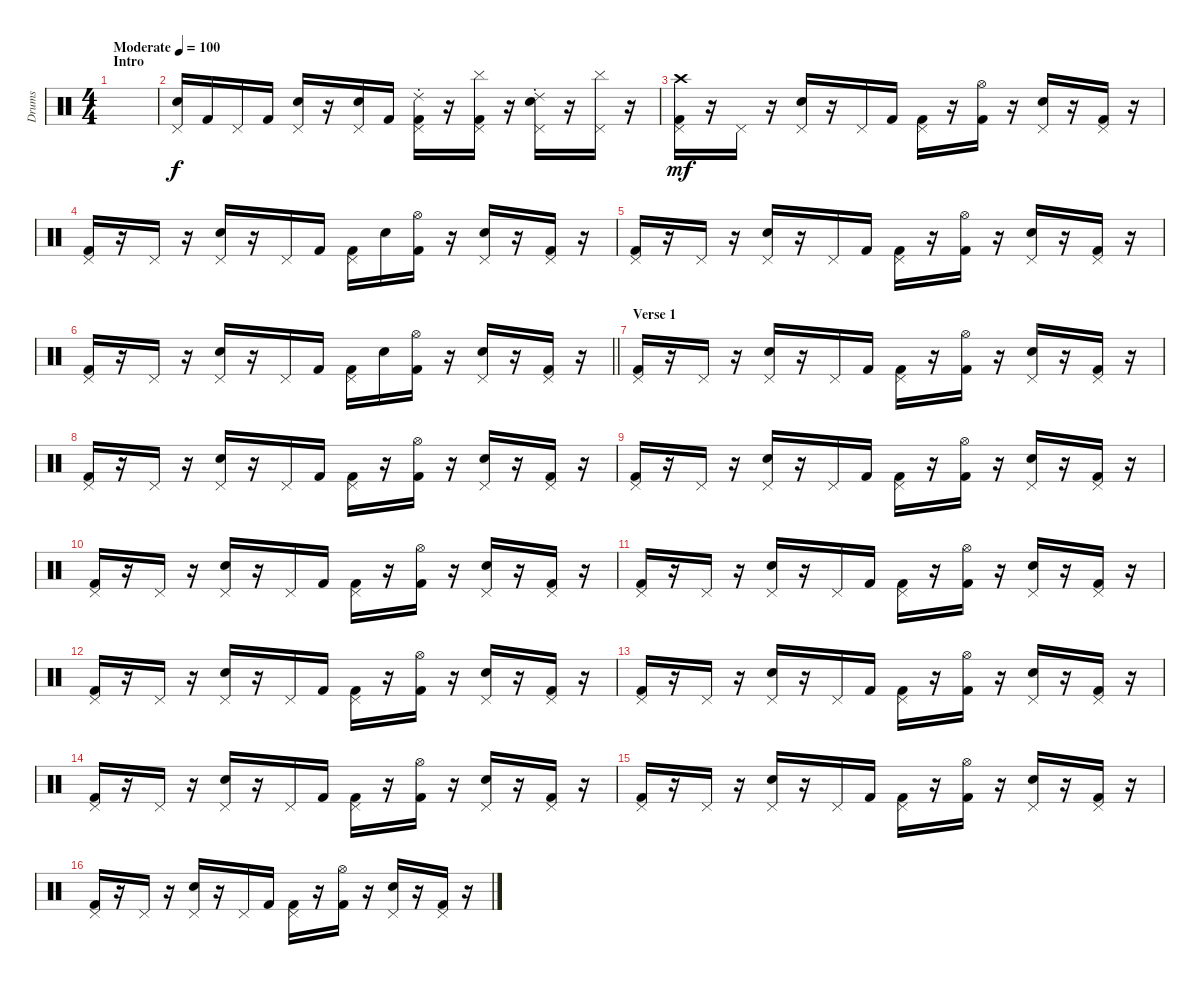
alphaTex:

\track ("Drums" "Drums") {instrument percussion}
\staff {score}
\articulation defaults
\ts (4 4)
\section ("" "Intro")
\tempo (100 "Moderate")
\clef neutral
\ks c
|
("Pedal Hi-Hat (hit)" "Electric Snare (hit)").16 "Kick (hit) 2".16 "Pedal Hi-Hat (hit)".16 "Kick (hit) 2".16 ("Pedal Hi-Hat (hit)" "Electric Snare (hit)").16 r.16 ("Pedal Hi-Hat (hit)" "Electric Snare (hit)").16 "Kick (hit) 2".16 ("Ride (choke) 2" "Pedal Hi-Hat (hit)" "Kick (hit) 2").16 r.16 ("Cymbal (hit)" "Pedal Hi-Hat (hit)" "Kick (hit) 2").16 r.16 ("Ride (choke) 2" "Pedal Hi-Hat (hit)" "Electric Snare (hit)").16 r.16 ("Cymbal (hit)" "Pedal Hi-Hat (hit)").16 r.16 |
("Pedal Hi-Hat (hit)" "Crash high (hit)" "Kick (hit) 2").16{dy mf} r.16 "Pedal Hi-Hat (hit)".16 r.16 ("Pedal Hi-Hat (hit)" "Electric Snare (hit)").16 r.16 "Pedal Hi-Hat (hit)".16 "Kick (hit) 2".16 ("Pedal Hi-Hat (hit)" "Kick (hit) 2").16 r.16 ("Hi-Hat (open)" "Kick (hit) 2").16 r.16 ("Pedal Hi-Hat (hit)" "Electric Snare (hit)").16 r.16 ("Pedal Hi-Hat (hit)" "Kick (hit) 2").16 r.16 |
("Pedal Hi-Hat (hit)" "Kick (hit) 2").16 r.16 "Pedal Hi-Hat (hit)".16 r.16 ("Pedal Hi-Hat (hit)" "Electric Snare (hit)").16 r.16 "Pedal Hi-Hat (hit)".16 "Kick (hit) 2".16 ("Pedal Hi-Hat (hit)" "Kick (hit) 2").16 "Electric Snare (hit)".16 ("Hi-Hat (open)" "Kick (hit) 2").16 r.16 ("Pedal Hi-Hat (hit)" "Electric Snare (hit)").16 r.16 ("Pedal Hi-Hat (hit)" "Kick (hit) 2").16 r.16 |
("Pedal Hi-Hat (hit)" "Kick (hit) 2").16 r.16 "Pedal Hi-Hat (hit)".16 r.16 ("Pedal Hi-Hat (hit)" "Electric Snare (hit)").16 r.16 "Pedal Hi-Hat (hit)".16 "Kick (hit) 2".16 ("Pedal Hi-Hat (hit)" "Kick (hit) 2").16 r.16 ("Hi-Hat (open)" "Kick (hit) 2").16 r.16 ("Pedal Hi-Hat (hit)" "Electric Snare (hit)").16 r.16 ("Pedal Hi-Hat (hit)" "Kick (hit) 2").16 r.16 |
\barLineRight lightlight
("Pedal Hi-Hat (hit)" "Kick (hit) 2").16 r.16 "Pedal Hi-Hat (hit)".16 r.16 ("Pedal Hi-Hat (hit)" "Electric Snare (hit)").16 r.16 "Pedal Hi-Hat (hit)".16 "Kick (hit) 2".16 ("Pedal Hi-Hat (hit)" "Kick (hit) 2").16 "Electric Snare (hit)".16 ("Hi-Hat (open)" "Kick (hit) 2").16 r.16 ("Pedal Hi-Hat (hit)" "Electric Snare (hit)").16 r.16 ("Pedal Hi-Hat (hit)" "Kick (hit) 2").16 r.16 |
\section ("" "Verse 1")
("Pedal Hi-Hat (hit)" "Kick (hit) 2").16 r.16 "Pedal Hi-Hat (hit)".16 r.16 ("Pedal Hi-Hat (hit)" "Electric Snare (hit)").16 r.16 "Pedal Hi-Hat (hit)".16 "Kick (hit) 2".16 ("Pedal Hi-Hat (hit)" "Kick (hit) 2").16 r.16 ("Hi-Hat (open)" "Kick (hit) 2").16 r.16 ("Pedal Hi-Hat (hit)" "Electric Snare (hit)").16 r.16 ("Pedal Hi-Hat (hit)" "Kick (hit) 2").16 r.16 |
("Pedal Hi-Hat (hit)" "Kick (hit) 2").16 r.16 "Pedal Hi-Hat (hit)".16 r.16 ("Pedal Hi-Hat (hit)" "Electric Snare (hit)").16 r.16 "Pedal Hi-Hat (hit)".16 "Kick (hit) 2".16 ("Pedal Hi-Hat (hit)" "Kick (hit) 2").16 r.16 ("Hi-Hat (open)" "Kick (hit) 2").16 r.16 ("Pedal Hi-Hat (hit)" "Electric Snare (hit)").16 r.16 ("Pedal Hi-Hat (hit)" "Kick (hit) 2").16 r.16 |
("Pedal Hi-Hat (hit)" "Kick (hit) 2").16 r.16 "Pedal Hi-Hat (hit)".16 r.16 ("Pedal Hi-Hat (hit)" "Electric Snare (hit)").16 r.16 "Pedal Hi-Hat (hit)".16 "Kick (hit) 2".16 ("Pedal Hi-Hat (hit)" "Kick (hit) 2").16 r.16 ("Hi-Hat (open)" "Kick (hit) 2").16 r.16 ("Pedal Hi-Hat (hit)" "Electric Snare (hit)").16 r.16 ("Pedal Hi-Hat (hit)" "Kick (hit) 2").16 r.16 |
("Pedal Hi-Hat (hit)" "Kick (hit) 2").16 r.16 "Pedal Hi-Hat (hit)".16 r.16 ("Pedal Hi-Hat (hit)" "Electric Snare (hit)").16 r.16 "Pedal Hi-Hat (hit)".16 "Kick (hit) 2".16 ("Pedal Hi-Hat (hit)" "Kick (hit) 2").16 r.16 ("Hi-Hat (open)" "Kick (hit) 2").16 r.16 ("Pedal Hi-Hat (hit)" "Electric Snare (hit)").16 r.16 ("Pedal Hi-Hat (hit)" "Kick (hit) 2").16 r.16 |
("Pedal Hi-Hat (hit)" "Kick (hit) 2").16 r.16 "Pedal Hi-Hat (hit)".16 r.16 ("Pedal Hi-Hat (hit)" "Electric Snare (hit)").16 r.16 "Pedal Hi-Hat (hit)".16 "Kick (hit) 2".16 ("Pedal Hi-Hat (hit)" "Kick (hit) 2").16 r.16 ("Hi-Hat (open)" "Kick (hit) 2").16 r.16 ("Pedal Hi-Hat (hit)" "Electric Snare (hit)").16 r.16 ("Pedal Hi-Hat (hit)" "Kick (hit) 2").16 r.16 |
("Pedal Hi-Hat (hit)" "Kick (hit) 2").16 r.16 "Pedal Hi-Hat (hit)".16 r.16 ("Pedal Hi-Hat (hit)" "Electric Snare (hit)").16 r.16 "Pedal Hi-Hat (hit)".16 "Kick (hit) 2".16 ("Pedal Hi-Hat (hit)" "Kick (hit) 2").16 r.16 ("Hi-Hat (open)" "Kick (hit) 2").16 r.16 ("Pedal Hi-Hat (hit)" "Electric Snare (hit)").16 r.16 ("Pedal Hi-Hat (hit)" "Kick (hit) 2").16 r.16 |
("Pedal Hi-Hat (hit)" "Kick (hit) 2").16 r.16 "Pedal Hi-Hat (hit)".16 r.16 ("Pedal Hi-Hat (hit)" "Electric Snare (hit)").16 r.16 "Pedal Hi-Hat (hit)".16 "Kick (hit) 2".16 ("Pedal Hi-Hat (hit)" "Kick (hit) 2").16 r.16 ("Hi-Hat (open)" "Kick (hit) 2").16 r.16 ("Pedal Hi-Hat (hit)" "Electric Snare (hit)").16 r.16 ("Pedal Hi-Hat (hit)" "Kick (hit) 2").16 r.16 |
("Pedal Hi-Hat (hit)" "Kick (hit) 2").16 r.16 "Pedal Hi-Hat (hit)".16 r.16 ("Pedal Hi-Hat (hit)" "Electric Snare (hit)").16 r.16 "Pedal Hi-Hat (hit)".16 "Kick (hit) 2".16 ("Pedal Hi-Hat (hit)" "Kick (hit) 2").16 r.16 ("Hi-Hat (open)" "Kick (hit) 2").16 r.16 ("Pedal Hi-Hat (hit)" "Electric Snare (hit)").16 r.16 ("Pedal Hi-Hat (hit)" "Kick (hit) 2").16 r.16 |
("Pedal Hi-Hat (hit)" "Kick (hit) 2").16 r.16 "Pedal Hi-Hat (hit)".16 r.16 ("Pedal Hi-Hat (hit)" "Electric Snare (hit)").16 r.16 "Pedal Hi-Hat (hit)".16 "Kick (hit) 2".16 ("Pedal Hi-Hat (hit)" "Kick (hit) 2").16 r.16 ("Hi-Hat (open)" "Kick (hit) 2").16 r.16 ("Pedal Hi-Hat (hit)" "Electric Snare (hit)").16 r.16 ("Pedal Hi-Hat (hit)" "Kick (hit) 2").16 r.16 |
("Pedal Hi-Hat (hit)" "Kick (hit) 2").16 r.16 "Pedal Hi-Hat (hit)".16 r.16 ("Pedal Hi-Hat (hit)" "Electric Snare (hit)").16 r.16 "Pedal Hi-Hat (hit)".16 "Kick (hit) 2".16 ("Pedal Hi-Hat (hit)" "Kick (hit) 2").16 r.16 ("Hi-Hat (open)" "Kick (hit) 2").16 r.16 ("Pedal Hi-Hat (hit)" "Electric Snare (hit)").16 r.16 ("Pedal Hi-Hat (hit)" "Kick (hit) 2").16 r.16
